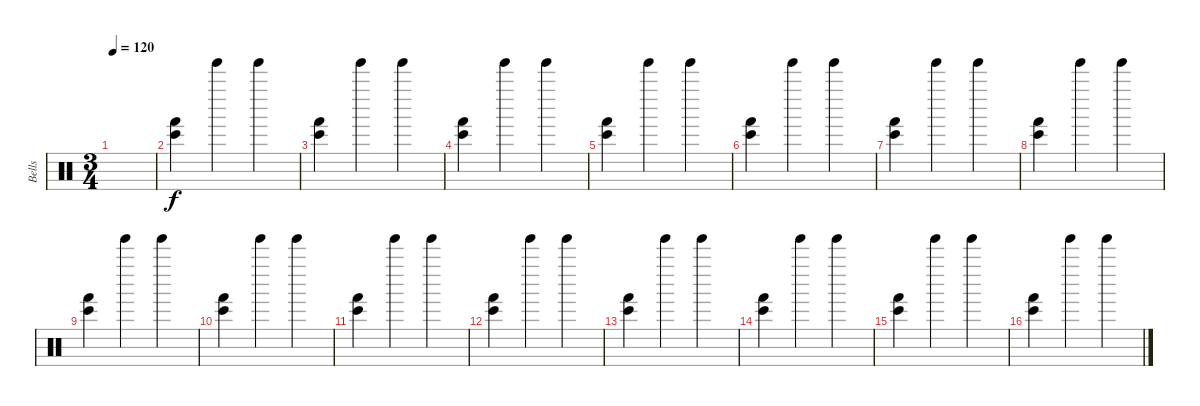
\track ("Bells" "Bells") {instrument percussion}
\staff {score}
\articulation defaults
\ts (3 4)
\tempo 120
\clef neutral
\ks c
|
("Hand (hit)" "Bongo High (hit)").4 "Tinkle Bell (hit)".4 "Tinkle Bell (hit)".4 |
("Hand (hit)" "Bongo High (hit)").4 "Tinkle Bell (hit)".4 "Tinkle Bell (hit)".4 |
("Hand (hit)" "Bongo High (hit)").4 "Tinkle Bell (hit)".4 "Tinkle Bell (hit)".4 |
("Hand (hit)" "Bongo High (hit)").4 "Tinkle Bell (hit)".4 "Tinkle Bell (hit)".4 |
("Hand (hit)" "Bongo High (hit)").4 "Tinkle Bell (hit)".4 "Tinkle Bell (hit)".4 |
("Hand (hit)" "Bongo High (hit)").4 "Tinkle Bell (hit)".4 "Tinkle Bell (hit)".4 |
("Hand (hit)" "Bongo High (hit)").4 "Tinkle Bell (hit)".4 "Tinkle Bell (hit)".4 |
("Hand (hit)" "Bongo High (hit)").4 "Tinkle Bell (hit)".4 "Tinkle Bell (hit)".4 |
("Hand (hit)" "Bongo High (hit)").4 "Tinkle Bell (hit)".4 "Tinkle Bell (hit)".4 |
("Hand (hit)" "Bongo High (hit)").4 "Tinkle Bell (hit)".4 "Tinkle Bell (hit)".4 |
("Hand (hit)" "Bongo High (hit)").4 "Tinkle Bell (hit)".4 "Tinkle Bell (hit)".4 |
("Hand (hit)" "Bongo High (hit)").4 "Tinkle Bell (hit)".4 "Tinkle Bell (hit)".4 |
("Hand (hit)" "Bongo High (hit)").4 "Tinkle Bell (hit)".4 "Tinkle Bell (hit)".4 |
("Hand (hit)" "Bongo High (hit)").4 "Tinkle Bell (hit)".4 "Tinkle Bell (hit)".4 |
("Hand (hit)" "Bongo High (hit)").4 "Tinkle Bell (hit)".4 "Tinkle Bell (hit)".4
